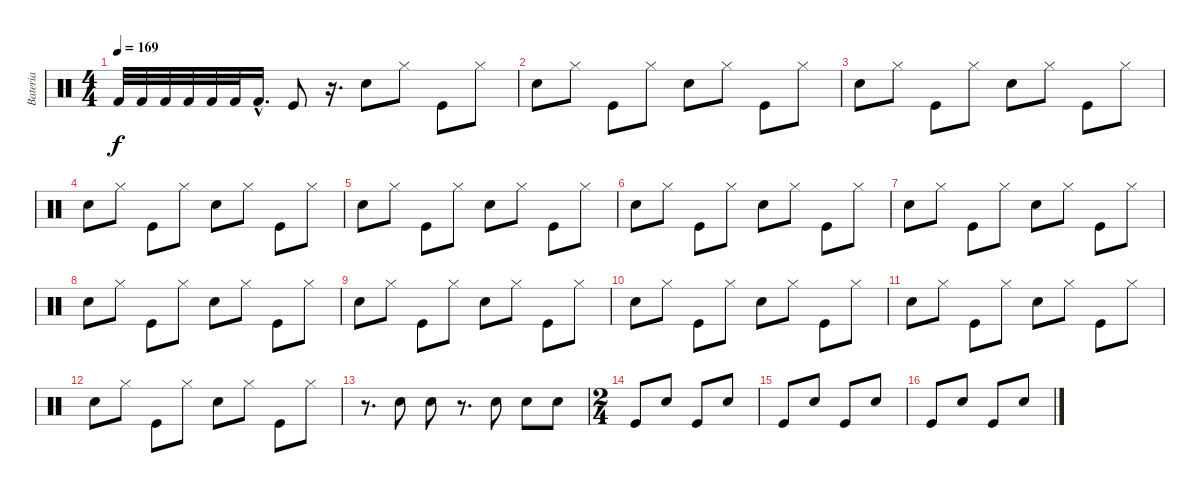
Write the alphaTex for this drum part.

\track ("Bateria" "Bateria") {instrument percussion}
\staff {score}
\articulation defaults
\ts (4 4)
\tempo 169
\clef neutral
\ks c "Kick (hit) 2".32{dy f} "Kick (hit) 2".32 "Kick (hit) 2".32 "Kick (hit) 2".32 "Kick (hit) 2".32 "Kick (hit) 2".32 "Kick (hit) 2"{hac}.16{d} "Kick (hit)".8
r.16{d} "Snare (hit) 2".8 "Hi-Hat (closed)".8 "Kick (hit)".8 "Hi-Hat (closed)".8 |
"Snare (hit) 2".8 "Hi-Hat (closed)".8 "Kick (hit)".8 "Hi-Hat (closed)".8 "Snare (hit) 2".8 "Hi-Hat (closed)".8 "Kick (hit)".8 "Hi-Hat (closed)".8 |
"Snare (hit) 2".8 "Hi-Hat (closed)".8 "Kick (hit)".8 "Hi-Hat (closed)".8 "Snare (hit) 2".8 "Hi-Hat (closed)".8 "Kick (hit)".8 "Hi-Hat (closed)".8 |
"Snare (hit) 2".8 "Hi-Hat (closed)".8 "Kick (hit)".8 "Hi-Hat (closed)".8 "Snare (hit) 2".8 "Hi-Hat (closed)".8 "Kick (hit)".8 "Hi-Hat (closed)".8 |
"Snare (hit) 2".8 "Hi-Hat (closed)".8 "Kick (hit)".8 "Hi-Hat (closed)".8 "Snare (hit) 2".8 "Hi-Hat (closed)".8 "Kick (hit)".8 "Hi-Hat (closed)".8 |
"Snare (hit) 2".8 "Hi-Hat (closed)".8 "Kick (hit)".8 "Hi-Hat (closed)".8 "Snare (hit) 2".8 "Hi-Hat (closed)".8 "Kick (hit)".8 "Hi-Hat (closed)".8 |
"Snare (hit) 2".8 "Hi-Hat (closed)".8 "Kick (hit)".8 "Hi-Hat (closed)".8 "Snare (hit) 2".8 "Hi-Hat (closed)".8 "Kick (hit)".8 "Hi-Hat (closed)".8 |
"Snare (hit) 2".8 "Hi-Hat (closed)".8 "Kick (hit)".8 "Hi-Hat (closed)".8 "Snare (hit) 2".8 "Hi-Hat (closed)".8 "Kick (hit)".8 "Hi-Hat (closed)".8 |
"Snare (hit) 2".8 "Hi-Hat (closed)".8 "Kick (hit)".8 "Hi-Hat (closed)".8 "Snare (hit) 2".8 "Hi-Hat (closed)".8 "Kick (hit)".8 "Hi-Hat (closed)".8 |
"Snare (hit) 2".8 "Hi-Hat (closed)".8 "Kick (hit)".8 "Hi-Hat (closed)".8 "Snare (hit) 2".8 "Hi-Hat (closed)".8 "Kick (hit)".8 "Hi-Hat (closed)".8 |
"Snare (hit) 2".8 "Hi-Hat (closed)".8 "Kick (hit)".8 "Hi-Hat (closed)".8 "Snare (hit) 2".8 "Hi-Hat (closed)".8 "Kick (hit)".8 "Hi-Hat (closed)".8 |
"Snare (hit) 2".8 "Hi-Hat (closed)".8 "Kick (hit)".8 "Hi-Hat (closed)".8 "Snare (hit) 2".8 "Hi-Hat (closed)".8 "Kick (hit)".8 "Hi-Hat (closed)".8 |
r.8{d} "Snare (hit) 2".8 "Snare (hit) 2".8 r.8{d} "Snare (hit) 2".8 "Snare (hit) 2".8 "Snare (hit) 2".8 |
\ts (2 4)
"Kick (hit)".8 "Snare (hit) 2".8 "Kick (hit)".8 "Snare (hit) 2".8 |
"Kick (hit)".8 "Snare (hit) 2".8 "Kick (hit)".8 "Snare (hit) 2".8 |
"Kick (hit)".8 "Snare (hit) 2".8 "Kick (hit)".8 "Snare (hit) 2".8
